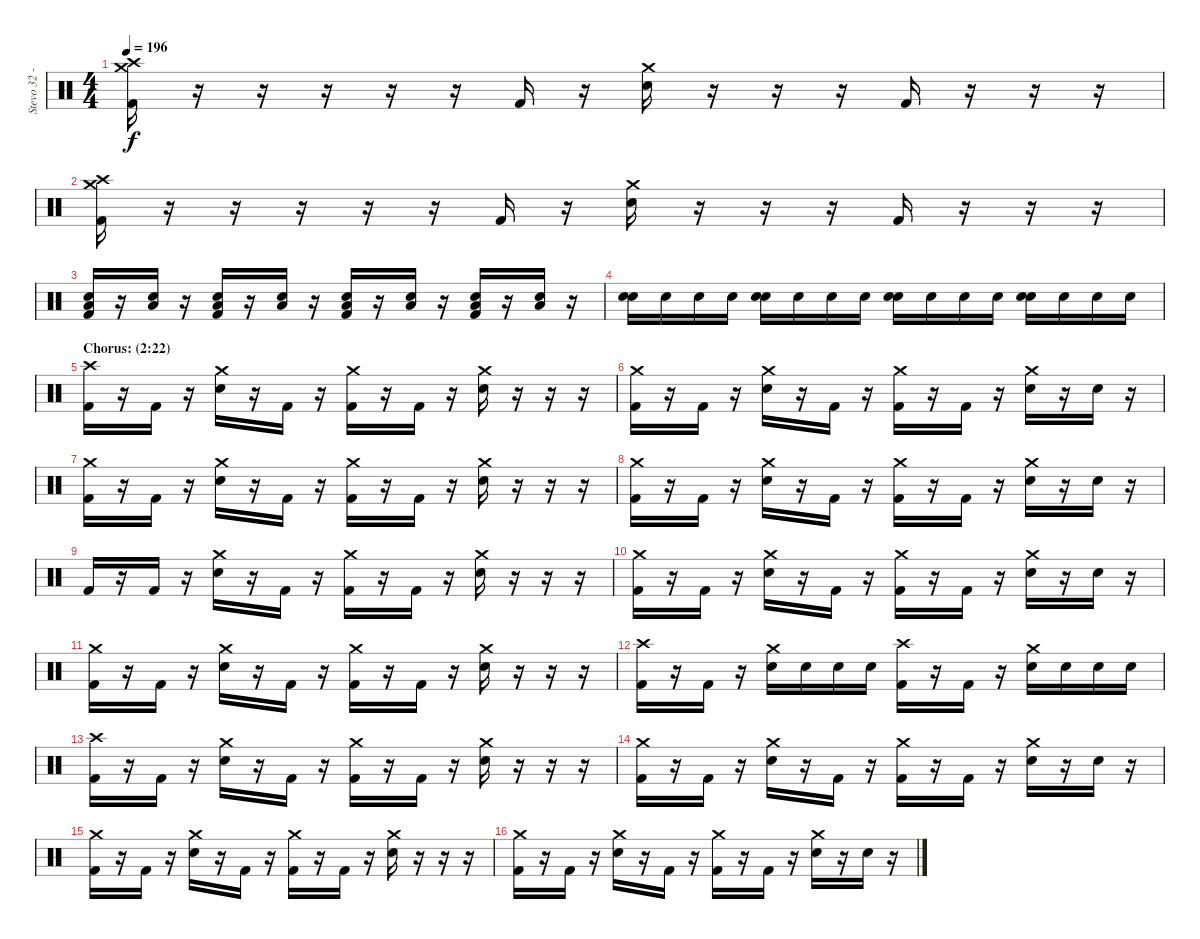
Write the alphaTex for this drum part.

\track ("Stevo 32 - Drums" "Stevo 32 -") {instrument percussion}
\staff {score}
\articulation defaults
\ts (4 4)
\tempo 196
\clef neutral
\ks c
("Crash high (hit)" "Crash medium (hit)" "Kick (hit) 2").16{dy f} r.16 r.16 r.16 r.16 r.16 "Kick (hit) 2".16 r.16 ("Crash medium (hit)" "Snare (hit) 2").16 r.16 r.16 r.16 "Kick (hit) 2".16 r.16 r.16 r.16 |
("Crash high (hit)" "Crash medium (hit)" "Kick (hit) 2").16 r.16 r.16 r.16 r.16 r.16 "Kick (hit) 2".16 r.16 ("Crash medium (hit)" "Snare (hit) 2").16 r.16 r.16 r.16 "Kick (hit) 2".16 r.16 r.16 r.16 |
("Low Tom (hit)" "Snare (hit) 2" "Kick (hit) 2").16 r.16 ("Low Tom (hit)" "Snare (hit) 2").16 r.16 ("Low Tom (hit)" "Snare (hit) 2" "Kick (hit) 2").16 r.16 ("Low Tom (hit)" "Snare (hit) 2").16 r.16 ("Low Tom (hit)" "Snare (hit) 2" "Kick (hit) 2").16 r.16 ("Low Tom (hit)" "Snare (hit) 2").16 r.16 ("Low Tom (hit)" "Snare (hit) 2" "Kick (hit) 2").16 r.16 ("Low Tom (hit)" "Snare (hit) 2").16 r.16 |
("Snare (hit) 2" "Snare (hit) 2").16 "Snare (hit) 2".16 "Snare (hit) 2".16 "Snare (hit) 2".16 ("Snare (hit) 2" "Snare (hit) 2").16 "Snare (hit) 2".16 "Snare (hit) 2".16 "Snare (hit) 2".16 ("Snare (hit) 2" "Snare (hit) 2").16 "Snare (hit) 2".16 "Snare (hit) 2".16 "Snare (hit) 2".16 ("Snare (hit) 2" "Snare (hit) 2").16 "Snare (hit) 2".16 "Snare (hit) 2".16 "Snare (hit) 2".16 |
\section ("" "Chorus: (2:22)")
("Crash high (hit)" "Kick (hit) 2").16 r.16 "Kick (hit) 2".16 r.16 ("Crash medium (hit)" "Snare (hit) 2").16 r.16 "Kick (hit) 2".16 r.16 ("Crash medium (hit)" "Kick (hit) 2").16 r.16 "Kick (hit) 2".16 r.16 ("Crash medium (hit)" "Snare (hit) 2").16 r.16 r.16 r.16 |
("Crash medium (hit)" "Kick (hit) 2").16 r.16 "Kick (hit) 2".16 r.16 ("Crash medium (hit)" "Snare (hit) 2").16 r.16 "Kick (hit) 2".16 r.16 ("Crash medium (hit)" "Kick (hit) 2").16 r.16 "Kick (hit) 2".16 r.16 ("Crash medium (hit)" "Snare (hit) 2").16 r.16 "Snare (hit) 2".16 r.16 |
("Crash medium (hit)" "Kick (hit) 2").16 r.16 "Kick (hit) 2".16 r.16 ("Crash medium (hit)" "Snare (hit) 2").16 r.16 "Kick (hit) 2".16 r.16 ("Crash medium (hit)" "Kick (hit) 2").16 r.16 "Kick (hit) 2".16 r.16 ("Crash medium (hit)" "Snare (hit) 2").16 r.16 r.16 r.16 |
("Crash medium (hit)" "Kick (hit) 2").16 r.16 "Kick (hit) 2".16 r.16 ("Crash medium (hit)" "Snare (hit) 2").16 r.16 "Kick (hit) 2".16 r.16 ("Crash medium (hit)" "Kick (hit) 2").16 r.16 "Kick (hit) 2".16 r.16 ("Crash medium (hit)" "Snare (hit) 2").16 r.16 "Snare (hit) 2".16 r.16 |
"Kick (hit) 2".16 r.16 "Kick (hit) 2".16 r.16 ("Crash medium (hit)" "Snare (hit) 2").16 r.16 "Kick (hit) 2".16 r.16 ("Crash medium (hit)" "Kick (hit) 2").16 r.16 "Kick (hit) 2".16 r.16 ("Crash medium (hit)" "Snare (hit) 2").16 r.16 r.16 r.16 |
("Crash medium (hit)" "Kick (hit) 2").16 r.16 "Kick (hit) 2".16 r.16 ("Crash medium (hit)" "Snare (hit) 2").16 r.16 "Kick (hit) 2".16 r.16 ("Crash medium (hit)" "Kick (hit) 2").16 r.16 "Kick (hit) 2".16 r.16 ("Crash medium (hit)" "Snare (hit) 2").16 r.16 "Snare (hit) 2".16 r.16 |
("Crash medium (hit)" "Kick (hit) 2").16 r.16 "Kick (hit) 2".16 r.16 ("Crash medium (hit)" "Snare (hit) 2").16 r.16 "Kick (hit) 2".16 r.16 ("Crash medium (hit)" "Kick (hit) 2").16 r.16 "Kick (hit) 2".16 r.16 ("Crash medium (hit)" "Snare (hit) 2").16 r.16 r.16 r.16 |
("Crash high (hit)" "Kick (hit) 2").16 r.16 "Kick (hit) 2".16 r.16 ("Crash medium (hit)" "Snare (hit) 2").16 "Snare (hit) 2".16 "Snare (hit) 2".16 "Snare (hit) 2".16 ("Crash high (hit)" "Kick (hit) 2").16 r.16 "Kick (hit) 2".16 r.16 ("Crash medium (hit)" "Snare (hit) 2").16 "Snare (hit) 2".16 "Snare (hit) 2".16 "Snare (hit) 2".16 |
("Crash high (hit)" "Kick (hit) 2").16 r.16 "Kick (hit) 2".16 r.16 ("Crash medium (hit)" "Snare (hit) 2").16 r.16 "Kick (hit) 2".16 r.16 ("Crash medium (hit)" "Kick (hit) 2").16 r.16 "Kick (hit) 2".16 r.16 ("Crash medium (hit)" "Snare (hit) 2").16 r.16 r.16 r.16 |
("Crash medium (hit)" "Kick (hit) 2").16 r.16 "Kick (hit) 2".16 r.16 ("Crash medium (hit)" "Snare (hit) 2").16 r.16 "Kick (hit) 2".16 r.16 ("Crash medium (hit)" "Kick (hit) 2").16 r.16 "Kick (hit) 2".16 r.16 ("Crash medium (hit)" "Snare (hit) 2").16 r.16 "Snare (hit) 2".16 r.16 |
("Crash medium (hit)" "Kick (hit) 2").16 r.16 "Kick (hit) 2".16 r.16 ("Crash medium (hit)" "Snare (hit) 2").16 r.16 "Kick (hit) 2".16 r.16 ("Crash medium (hit)" "Kick (hit) 2").16 r.16 "Kick (hit) 2".16 r.16 ("Crash medium (hit)" "Snare (hit) 2").16 r.16 r.16 r.16 |
("Crash medium (hit)" "Kick (hit) 2").16 r.16 "Kick (hit) 2".16 r.16 ("Crash medium (hit)" "Snare (hit) 2").16 r.16 "Kick (hit) 2".16 r.16 ("Crash medium (hit)" "Kick (hit) 2").16 r.16 "Kick (hit) 2".16 r.16 ("Crash medium (hit)" "Snare (hit) 2").16 r.16 "Snare (hit) 2".16 r.16
